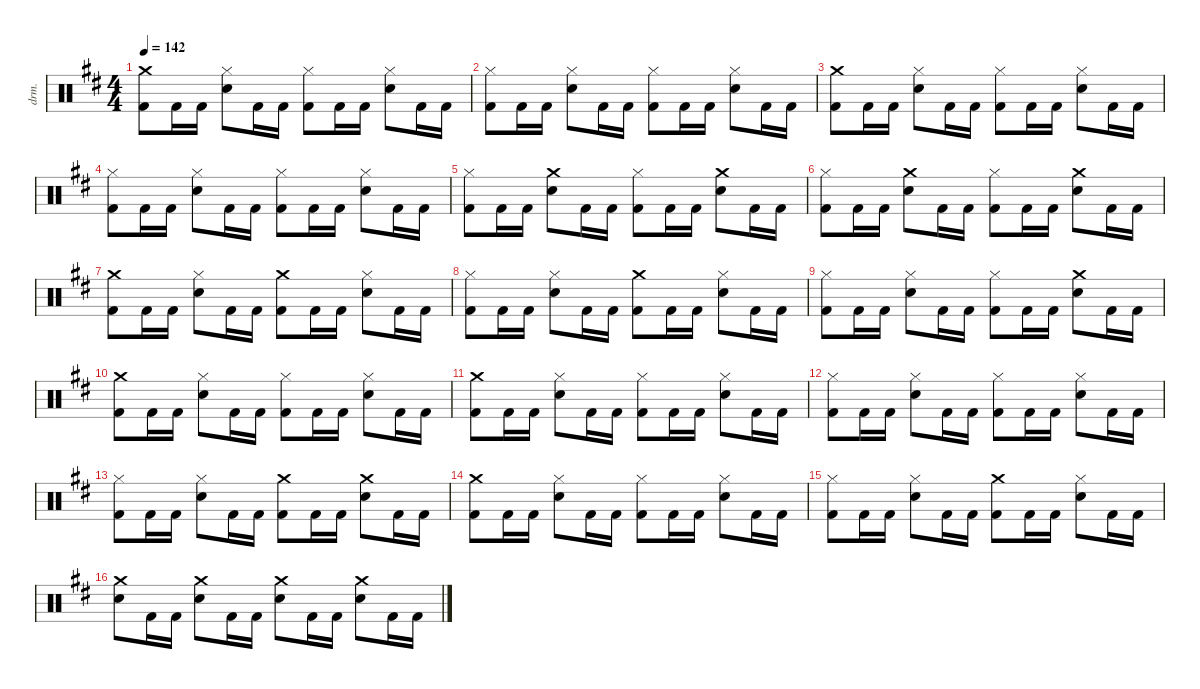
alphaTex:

\defaultSystemsLayout 4
\hideDynamics
\bracketExtendMode nobrackets
\otherSystemsTrackNameOrientation horizontal
\track ("Lars - Drums" "drm.") {defaultSystemsLayout 4 instrument percussion}
\staff {score}
\articulation defaults
\ts (4 4)
\tempo 142
\clef neutral
\ks bminor
("Crash medium (hit)"{acc forcenatural} "Kick (hit) 2"{acc forcenatural}).8{dy f beam Down} "Kick (hit) 2"{acc forcenatural}.16{beam Down} "Kick (hit) 2"{acc forcenatural}.16{beam Down} ("Hi-Hat (closed)"{acc forcenatural} "Snare (hit) 2"{acc forcenatural}).8{beam Down} "Kick (hit) 2"{acc forcenatural}.16{beam Down} "Kick (hit) 2"{acc forcenatural}.16{beam Down} ("Hi-Hat (closed)"{acc forcenatural} "Kick (hit) 2"{acc forcenatural}).8{beam Down} "Kick (hit) 2"{acc forcenatural}.16{beam Down} "Kick (hit) 2"{acc forcenatural}.16{beam Down} ("Hi-Hat (closed)"{acc forcenatural} "Snare (hit) 2"{acc forcenatural}).8{beam Down} "Kick (hit) 2"{acc forcenatural}.16{beam Down} "Kick (hit) 2"{acc forcenatural}.16{beam Down} |
("Hi-Hat (closed)"{acc forcenatural} "Kick (hit) 2"{acc forcenatural}).8{beam Down} "Kick (hit) 2"{acc forcenatural}.16{beam Down} "Kick (hit) 2"{acc forcenatural}.16{beam Down} ("Hi-Hat (closed)"{acc forcenatural} "Snare (hit) 2"{acc forcenatural}).8{beam Down} "Kick (hit) 2"{acc forcenatural}.16{beam Down} "Kick (hit) 2"{acc forcenatural}.16{beam Down} ("Hi-Hat (closed)"{acc forcenatural} "Kick (hit) 2"{acc forcenatural}).8{beam Down} "Kick (hit) 2"{acc forcenatural}.16{beam Down} "Kick (hit) 2"{acc forcenatural}.16{beam Down} ("Hi-Hat (closed)"{acc forcenatural} "Snare (hit) 2"{acc forcenatural}).8{beam Down} "Kick (hit) 2"{acc forcenatural}.16{beam Down} "Kick (hit) 2"{acc forcenatural}.16{beam Down} |
("Crash medium (hit)"{acc forcenatural} "Kick (hit) 2"{acc forcenatural}).8{beam Down} "Kick (hit) 2"{acc forcenatural}.16{beam Down} "Kick (hit) 2"{acc forcenatural}.16{beam Down} ("Hi-Hat (closed)"{acc forcenatural} "Snare (hit) 2"{acc forcenatural}).8{beam Down} "Kick (hit) 2"{acc forcenatural}.16{beam Down} "Kick (hit) 2"{acc forcenatural}.16{beam Down} ("Hi-Hat (closed)"{acc forcenatural} "Kick (hit) 2"{acc forcenatural}).8{beam Down} "Kick (hit) 2"{acc forcenatural}.16{beam Down} "Kick (hit) 2"{acc forcenatural}.16{beam Down} ("Hi-Hat (closed)"{acc forcenatural} "Snare (hit) 2"{acc forcenatural}).8{beam Down} "Kick (hit) 2"{acc forcenatural}.16{beam Down} "Kick (hit) 2"{acc forcenatural}.16{beam Down} |
("Hi-Hat (closed)"{acc forcenatural} "Kick (hit) 2"{acc forcenatural}).8{beam Down} "Kick (hit) 2"{acc forcenatural}.16{beam Down} "Kick (hit) 2"{acc forcenatural}.16{beam Down} ("Hi-Hat (closed)"{acc forcenatural} "Snare (hit) 2"{acc forcenatural}).8{beam Down} "Kick (hit) 2"{acc forcenatural}.16{beam Down} "Kick (hit) 2"{acc forcenatural}.16{beam Down} ("Hi-Hat (closed)"{acc forcenatural} "Kick (hit) 2"{acc forcenatural}).8{beam Down} "Kick (hit) 2"{acc forcenatural}.16{beam Down} "Kick (hit) 2"{acc forcenatural}.16{beam Down} ("Hi-Hat (closed)"{acc forcenatural} "Snare (hit) 2"{acc forcenatural}).8{beam Down} "Kick (hit) 2"{acc forcenatural}.16{beam Down} "Kick (hit) 2"{acc forcenatural}.16{beam Down} |
("Hi-Hat (closed)"{acc forcenatural} "Kick (hit) 2"{acc forcenatural}).8{beam Down} "Kick (hit) 2"{acc forcenatural}.16{beam Down} "Kick (hit) 2"{acc forcenatural}.16{beam Down} ("Crash medium (hit)"{acc forcenatural} "Snare (hit) 2"{acc forcenatural}).8{beam Down} "Kick (hit) 2"{acc forcenatural}.16{beam Down} "Kick (hit) 2"{acc forcenatural}.16{beam Down} ("Hi-Hat (closed)"{acc forcenatural} "Kick (hit) 2"{acc forcenatural}).8{beam Down} "Kick (hit) 2"{acc forcenatural}.16{beam Down} "Kick (hit) 2"{acc forcenatural}.16{beam Down} ("Crash medium (hit)"{acc forcenatural} "Snare (hit) 2"{acc forcenatural}).8{beam Down} "Kick (hit) 2"{acc forcenatural}.16{beam Down} "Kick (hit) 2"{acc forcenatural}.16{beam Down} |
("Hi-Hat (closed)"{acc forcenatural} "Kick (hit) 2"{acc forcenatural}).8{beam Down} "Kick (hit) 2"{acc forcenatural}.16{beam Down} "Kick (hit) 2"{acc forcenatural}.16{beam Down} ("Crash medium (hit)"{acc forcenatural} "Snare (hit) 2"{acc forcenatural}).8{beam Down} "Kick (hit) 2"{acc forcenatural}.16{beam Down} "Kick (hit) 2"{acc forcenatural}.16{beam Down} ("Hi-Hat (closed)"{acc forcenatural} "Kick (hit) 2"{acc forcenatural}).8{beam Down} "Kick (hit) 2"{acc forcenatural}.16{beam Down} "Kick (hit) 2"{acc forcenatural}.16{beam Down} ("Crash medium (hit)"{acc forcenatural} "Snare (hit) 2"{acc forcenatural}).8{beam Down} "Kick (hit) 2"{acc forcenatural}.16{beam Down} "Kick (hit) 2"{acc forcenatural}.16{beam Down} |
("Crash medium (hit)"{acc forcenatural} "Kick (hit) 2"{acc forcenatural}).8{beam Down} "Kick (hit) 2"{acc forcenatural}.16{beam Down} "Kick (hit) 2"{acc forcenatural}.16{beam Down} ("Hi-Hat (closed)"{acc forcenatural} "Snare (hit) 2"{acc forcenatural}).8{beam Down} "Kick (hit) 2"{acc forcenatural}.16{beam Down} "Kick (hit) 2"{acc forcenatural}.16{beam Down} ("Crash medium (hit)"{acc forcenatural} "Kick (hit) 2"{acc forcenatural}).8{beam Down} "Kick (hit) 2"{acc forcenatural}.16{beam Down} "Kick (hit) 2"{acc forcenatural}.16{beam Down} ("Hi-Hat (closed)"{acc forcenatural} "Snare (hit) 2"{acc forcenatural}).8{beam Down} "Kick (hit) 2"{acc forcenatural}.16{beam Down} "Kick (hit) 2"{acc forcenatural}.16{beam Down} |
("Hi-Hat (closed)"{acc forcenatural} "Kick (hit) 2"{acc forcenatural}).8{beam Down} "Kick (hit) 2"{acc forcenatural}.16{beam Down} "Kick (hit) 2"{acc forcenatural}.16{beam Down} ("Hi-Hat (closed)"{acc forcenatural} "Snare (hit) 2"{acc forcenatural}).8{beam Down} "Kick (hit) 2"{acc forcenatural}.16{beam Down} "Kick (hit) 2"{acc forcenatural}.16{beam Down} ("Crash medium (hit)"{acc forcenatural} "Kick (hit) 2"{acc forcenatural}).8{beam Down} "Kick (hit) 2"{acc forcenatural}.16{beam Down} "Kick (hit) 2"{acc forcenatural}.16{beam Down} ("Hi-Hat (closed)"{acc forcenatural} "Snare (hit) 2"{acc forcenatural}).8{beam Down} "Kick (hit) 2"{acc forcenatural}.16{beam Down} "Kick (hit) 2"{acc forcenatural}.16{beam Down} |
("Hi-Hat (closed)"{acc forcenatural} "Kick (hit) 2"{acc forcenatural}).8{beam Down} "Kick (hit) 2"{acc forcenatural}.16{beam Down} "Kick (hit) 2"{acc forcenatural}.16{beam Down} ("Hi-Hat (closed)"{acc forcenatural} "Snare (hit) 2"{acc forcenatural}).8{beam Down} "Kick (hit) 2"{acc forcenatural}.16{beam Down} "Kick (hit) 2"{acc forcenatural}.16{beam Down} ("Hi-Hat (closed)"{acc forcenatural} "Kick (hit) 2"{acc forcenatural}).8{beam Down} "Kick (hit) 2"{acc forcenatural}.16{beam Down} "Kick (hit) 2"{acc forcenatural}.16{beam Down} ("Crash medium (hit)"{acc forcenatural} "Snare (hit) 2"{acc forcenatural}).8{beam Down} "Kick (hit) 2"{acc forcenatural}.16{beam Down} "Kick (hit) 2"{acc forcenatural}.16{beam Down} |
("Crash medium (hit)"{acc forcenatural} "Kick (hit) 2"{acc forcenatural}).8{beam Down} "Kick (hit) 2"{acc forcenatural}.16{beam Down} "Kick (hit) 2"{acc forcenatural}.16{beam Down} ("Hi-Hat (closed)"{acc forcenatural} "Snare (hit) 2"{acc forcenatural}).8{beam Down} "Kick (hit) 2"{acc forcenatural}.16{beam Down} "Kick (hit) 2"{acc forcenatural}.16{beam Down} ("Hi-Hat (closed)"{acc forcenatural} "Kick (hit) 2"{acc forcenatural}).8{beam Down} "Kick (hit) 2"{acc forcenatural}.16{beam Down} "Kick (hit) 2"{acc forcenatural}.16{beam Down} ("Hi-Hat (closed)"{acc forcenatural} "Snare (hit) 2"{acc forcenatural}).8{beam Down} "Kick (hit) 2"{acc forcenatural}.16{beam Down} "Kick (hit) 2"{acc forcenatural}.16{beam Down} |
("Crash medium (hit)"{acc forcenatural} "Kick (hit) 2"{acc forcenatural}).8{beam Down} "Kick (hit) 2"{acc forcenatural}.16{beam Down} "Kick (hit) 2"{acc forcenatural}.16{beam Down} ("Hi-Hat (closed)"{acc forcenatural} "Snare (hit) 2"{acc forcenatural}).8{beam Down} "Kick (hit) 2"{acc forcenatural}.16{beam Down} "Kick (hit) 2"{acc forcenatural}.16{beam Down} ("Hi-Hat (closed)"{acc forcenatural} "Kick (hit) 2"{acc forcenatural}).8{beam Down} "Kick (hit) 2"{acc forcenatural}.16{beam Down} "Kick (hit) 2"{acc forcenatural}.16{beam Down} ("Hi-Hat (closed)"{acc forcenatural} "Snare (hit) 2"{acc forcenatural}).8{beam Down} "Kick (hit) 2"{acc forcenatural}.16{beam Down} "Kick (hit) 2"{acc forcenatural}.16{beam Down} |
("Hi-Hat (closed)"{acc forcenatural} "Kick (hit) 2"{acc forcenatural}).8{beam Down} "Kick (hit) 2"{acc forcenatural}.16{beam Down} "Kick (hit) 2"{acc forcenatural}.16{beam Down} ("Hi-Hat (closed)"{acc forcenatural} "Snare (hit) 2"{acc forcenatural}).8{beam Down} "Kick (hit) 2"{acc forcenatural}.16{beam Down} "Kick (hit) 2"{acc forcenatural}.16{beam Down} ("Hi-Hat (closed)"{acc forcenatural} "Kick (hit) 2"{acc forcenatural}).8{beam Down} "Kick (hit) 2"{acc forcenatural}.16{beam Down} "Kick (hit) 2"{acc forcenatural}.16{beam Down} ("Hi-Hat (closed)"{acc forcenatural} "Snare (hit) 2"{acc forcenatural}).8{beam Down} "Kick (hit) 2"{acc forcenatural}.16{beam Down} "Kick (hit) 2"{acc forcenatural}.16{beam Down} |
("Hi-Hat (closed)"{acc forcenatural} "Kick (hit) 2"{acc forcenatural}).8{beam Down} "Kick (hit) 2"{acc forcenatural}.16{beam Down} "Kick (hit) 2"{acc forcenatural}.16{beam Down} ("Hi-Hat (closed)"{acc forcenatural} "Snare (hit) 2"{acc forcenatural}).8{beam Down} "Kick (hit) 2"{acc forcenatural}.16{beam Down} "Kick (hit) 2"{acc forcenatural}.16{beam Down} ("Crash medium (hit)"{acc forcenatural} "Kick (hit) 2"{acc forcenatural}).8{beam Down} "Kick (hit) 2"{acc forcenatural}.16{beam Down} "Kick (hit) 2"{acc forcenatural}.16{beam Down} ("Crash medium (hit)"{acc forcenatural} "Snare (hit) 2"{acc forcenatural}).8{beam Down} "Kick (hit) 2"{acc forcenatural}.16{beam Down} "Kick (hit) 2"{acc forcenatural}.16{beam Down} |
("Crash medium (hit)"{acc forcenatural} "Kick (hit) 2"{acc forcenatural}).8{beam Down} "Kick (hit) 2"{acc forcenatural}.16{beam Down} "Kick (hit) 2"{acc forcenatural}.16{beam Down} ("Hi-Hat (closed)"{acc forcenatural} "Snare (hit) 2"{acc forcenatural}).8{beam Down} "Kick (hit) 2"{acc forcenatural}.16{beam Down} "Kick (hit) 2"{acc forcenatural}.16{beam Down} ("Hi-Hat (closed)"{acc forcenatural} "Kick (hit) 2"{acc forcenatural}).8{beam Down} "Kick (hit) 2"{acc forcenatural}.16{beam Down} "Kick (hit) 2"{acc forcenatural}.16{beam Down} ("Hi-Hat (closed)"{acc forcenatural} "Snare (hit) 2"{acc forcenatural}).8{beam Down} "Kick (hit) 2"{acc forcenatural}.16{beam Down} "Kick (hit) 2"{acc forcenatural}.16{beam Down} |
("Hi-Hat (closed)"{acc forcenatural} "Kick (hit) 2"{acc forcenatural}).8{beam Down} "Kick (hit) 2"{acc forcenatural}.16{beam Down} "Kick (hit) 2"{acc forcenatural}.16{beam Down} ("Hi-Hat (closed)"{acc forcenatural} "Snare (hit) 2"{acc forcenatural}).8{beam Down} "Kick (hit) 2"{acc forcenatural}.16{beam Down} "Kick (hit) 2"{acc forcenatural}.16{beam Down} ("Crash medium (hit)"{acc forcenatural} "Kick (hit) 2"{acc forcenatural}).8{beam Down} "Kick (hit) 2"{acc forcenatural}.16{beam Down} "Kick (hit) 2"{acc forcenatural}.16{beam Down} ("Hi-Hat (closed)"{acc forcenatural} "Snare (hit) 2"{acc forcenatural}).8{beam Down} "Kick (hit) 2"{acc forcenatural}.16{beam Down} "Kick (hit) 2"{acc forcenatural}.16{beam Down} |
("Crash medium (hit)"{acc forcenatural} "Snare (hit) 2"{acc forcenatural}).8{beam Down} "Kick (hit) 2"{acc forcenatural}.16{beam Down} "Kick (hit) 2"{acc forcenatural}.16{beam Down} ("Crash medium (hit)"{acc forcenatural} "Snare (hit) 2"{acc forcenatural}).8{beam Down} "Kick (hit) 2"{acc forcenatural}.16{beam Down} "Kick (hit) 2"{acc forcenatural}.16{beam Down} ("Crash medium (hit)"{acc forcenatural} "Snare (hit) 2"{acc forcenatural}).8{beam Down} "Kick (hit) 2"{acc forcenatural}.16{beam Down} "Kick (hit) 2"{acc forcenatural}.16{beam Down} ("Crash medium (hit)"{acc forcenatural} "Snare (hit) 2"{acc forcenatural}).8{beam Down} "Kick (hit) 2"{acc forcenatural}.16{beam Down} "Kick (hit) 2"{acc forcenatural}.16{beam Down}
